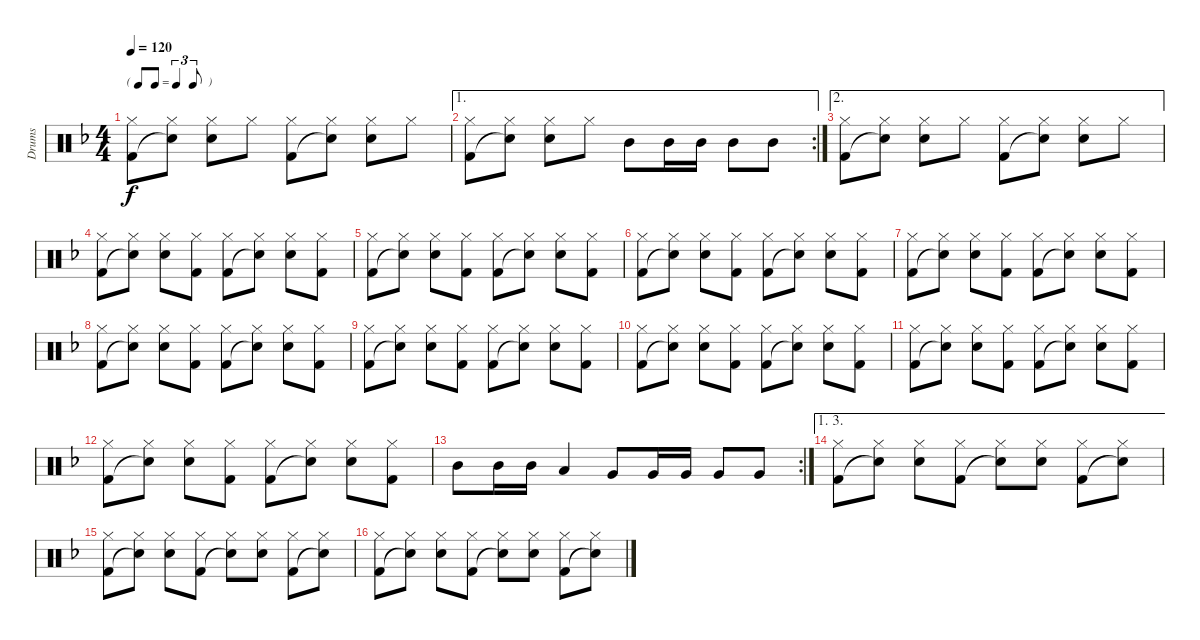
\track ("Drums" "Drums") {instrument percussion}
\staff {score}
\articulation defaults
\ts (4 4)
\tf triplet8th
\tempo 120
\clef neutral
\ks f
("Hi-Hat (closed)" "Kick (hit) 2").8{dy f} ("Hi-Hat (closed)" "Snare (hit)"{t}).8 ("Hi-Hat (closed)" "Snare (hit) 2").8 "Hi-Hat (closed)".8 ("Hi-Hat (closed)" "Kick (hit) 2").8 ("Hi-Hat (closed)" "Snare (hit)"{t}).8 ("Hi-Hat (closed)" "Snare (hit) 2").8 "Hi-Hat (closed)".8 |
\ae 1
\rc 2
("Hi-Hat (closed)" "Kick (hit) 2").8 ("Hi-Hat (closed)" "Snare (hit)"{t}).8 ("Hi-Hat (closed)" "Snare (hit) 2").8 "Hi-Hat (closed)".8 "Mid Tom (hit)".8 "Mid Tom (hit)".16 "Mid Tom (hit)".16 "Mid Tom (hit)".8 "Mid Tom (hit)".8 |
\ae 2
("Hi-Hat (closed)" "Kick (hit) 2").8 ("Hi-Hat (closed)" "Snare (hit)"{t}).8 ("Hi-Hat (closed)" "Snare (hit) 2").8 "Hi-Hat (closed)".8 ("Hi-Hat (closed)" "Kick (hit) 2").8 ("Hi-Hat (closed)" "Snare (hit)"{t}).8 ("Hi-Hat (closed)" "Snare (hit) 2").8 "Hi-Hat (closed)".8 |
("Hi-Hat (closed)" "Kick (hit) 2").8 ("Hi-Hat (closed)" "Snare (hit)"{t}).8 ("Hi-Hat (closed)" "Snare (hit) 2").8 ("Hi-Hat (closed)" "Kick (hit) 2").8 ("Hi-Hat (closed)" "Kick (hit) 2").8 ("Hi-Hat (closed)" "Snare (hit)"{t}).8 ("Hi-Hat (closed)" "Snare (hit) 2").8 ("Hi-Hat (closed)" "Kick (hit) 2").8 |
("Hi-Hat (closed)" "Kick (hit) 2").8 ("Hi-Hat (closed)" "Snare (hit)"{t}).8 ("Hi-Hat (closed)" "Snare (hit) 2").8 ("Hi-Hat (closed)" "Kick (hit) 2").8 ("Hi-Hat (closed)" "Kick (hit) 2").8 ("Hi-Hat (closed)" "Snare (hit)"{t}).8 ("Hi-Hat (closed)" "Snare (hit) 2").8 ("Hi-Hat (closed)" "Kick (hit) 2").8 |
("Hi-Hat (closed)" "Kick (hit) 2").8 ("Hi-Hat (closed)" "Snare (hit)"{t}).8 ("Hi-Hat (closed)" "Snare (hit) 2").8 ("Hi-Hat (closed)" "Kick (hit) 2").8 ("Hi-Hat (closed)" "Kick (hit) 2").8 ("Hi-Hat (closed)" "Snare (hit)"{t}).8 ("Hi-Hat (closed)" "Snare (hit) 2").8 ("Hi-Hat (closed)" "Kick (hit) 2").8 |
("Hi-Hat (closed)" "Kick (hit) 2").8 ("Hi-Hat (closed)" "Snare (hit)"{t}).8 ("Hi-Hat (closed)" "Snare (hit) 2").8 ("Hi-Hat (closed)" "Kick (hit) 2").8 ("Hi-Hat (closed)" "Kick (hit) 2").8 ("Hi-Hat (closed)" "Snare (hit)"{t}).8 ("Hi-Hat (closed)" "Snare (hit) 2").8 ("Hi-Hat (closed)" "Kick (hit) 2").8 |
("Hi-Hat (closed)" "Kick (hit) 2").8 ("Hi-Hat (closed)" "Snare (hit)"{t}).8 ("Hi-Hat (closed)" "Snare (hit) 2").8 ("Hi-Hat (closed)" "Kick (hit) 2").8 ("Hi-Hat (closed)" "Kick (hit) 2").8 ("Hi-Hat (closed)" "Snare (hit)"{t}).8 ("Hi-Hat (closed)" "Snare (hit) 2").8 ("Hi-Hat (closed)" "Kick (hit) 2").8 |
("Hi-Hat (closed)" "Kick (hit) 2").8 ("Hi-Hat (closed)" "Snare (hit)"{t}).8 ("Hi-Hat (closed)" "Snare (hit) 2").8 ("Hi-Hat (closed)" "Kick (hit) 2").8 ("Hi-Hat (closed)" "Kick (hit) 2").8 ("Hi-Hat (closed)" "Snare (hit)"{t}).8 ("Hi-Hat (closed)" "Snare (hit) 2").8 ("Hi-Hat (closed)" "Kick (hit) 2").8 |
("Hi-Hat (closed)" "Kick (hit) 2").8 ("Hi-Hat (closed)" "Snare (hit)"{t}).8 ("Hi-Hat (closed)" "Snare (hit) 2").8 ("Hi-Hat (closed)" "Kick (hit) 2").8 ("Hi-Hat (closed)" "Kick (hit) 2").8 ("Hi-Hat (closed)" "Snare (hit)"{t}).8 ("Hi-Hat (closed)" "Snare (hit) 2").8 ("Hi-Hat (closed)" "Kick (hit) 2").8 |
("Hi-Hat (closed)" "Kick (hit) 2").8 ("Hi-Hat (closed)" "Snare (hit)"{t}).8 ("Hi-Hat (closed)" "Snare (hit) 2").8 ("Hi-Hat (closed)" "Kick (hit) 2").8 ("Hi-Hat (closed)" "Kick (hit) 2").8 ("Hi-Hat (closed)" "Snare (hit)"{t}).8 ("Hi-Hat (closed)" "Snare (hit) 2").8 ("Hi-Hat (closed)" "Kick (hit) 2").8 |
("Hi-Hat (closed)" "Kick (hit) 2").8 ("Hi-Hat (closed)" "Snare (hit)"{t}).8 ("Hi-Hat (closed)" "Snare (hit) 2").8 ("Hi-Hat (closed)" "Kick (hit) 2").8 ("Hi-Hat (closed)" "Kick (hit) 2").8 ("Hi-Hat (closed)" "Snare (hit)"{t}).8 ("Hi-Hat (closed)" "Snare (hit) 2").8 ("Hi-Hat (closed)" "Kick (hit) 2").8 |
\rc 2 "Mid Tom (hit)".8 "Mid Tom (hit)".16 "Mid Tom (hit)".16 "Low Tom (hit)".4 "Very Low Tom (hit)".8 "Very Low Tom (hit)".16 "Very Low Tom (hit)".16 "Very Low Tom (hit)".8 "Very Low Tom (hit)".8
|
\ae (1 3)
("Hi-Hat (closed)" "Kick (hit) 2").8 ("Hi-Hat (closed)" "Snare (hit)"{t}).8 ("Hi-Hat (closed)" "Snare (hit) 2").8 ("Hi-Hat (closed)" "Kick (hit) 2").8 ("Hi-Hat (closed)" "Snare (hit)"{t}).8 ("Hi-Hat (closed)" "Snare (hit) 2").8 ("Hi-Hat (closed)" "Kick (hit) 2").8 ("Hi-Hat (closed)" "Snare (hit)"{t}).8 |
("Hi-Hat (closed)" "Kick (hit) 2").8 ("Hi-Hat (closed)" "Snare (hit)"{t}).8 ("Hi-Hat (closed)" "Snare (hit) 2").8 ("Hi-Hat (closed)" "Kick (hit) 2").8 ("Hi-Hat (closed)" "Snare (hit)"{t}).8 ("Hi-Hat (closed)" "Snare (hit) 2").8 ("Hi-Hat (closed)" "Kick (hit) 2").8 ("Hi-Hat (closed)" "Snare (hit)"{t}).8 |
("Hi-Hat (closed)" "Kick (hit) 2").8 ("Hi-Hat (closed)" "Snare (hit)"{t}).8 ("Hi-Hat (closed)" "Snare (hit) 2").8 ("Hi-Hat (closed)" "Kick (hit) 2").8 ("Hi-Hat (closed)" "Snare (hit)"{t}).8 ("Hi-Hat (closed)" "Snare (hit) 2").8 ("Hi-Hat (closed)" "Kick (hit) 2").8 ("Hi-Hat (closed)" "Snare (hit)"{t}).8
